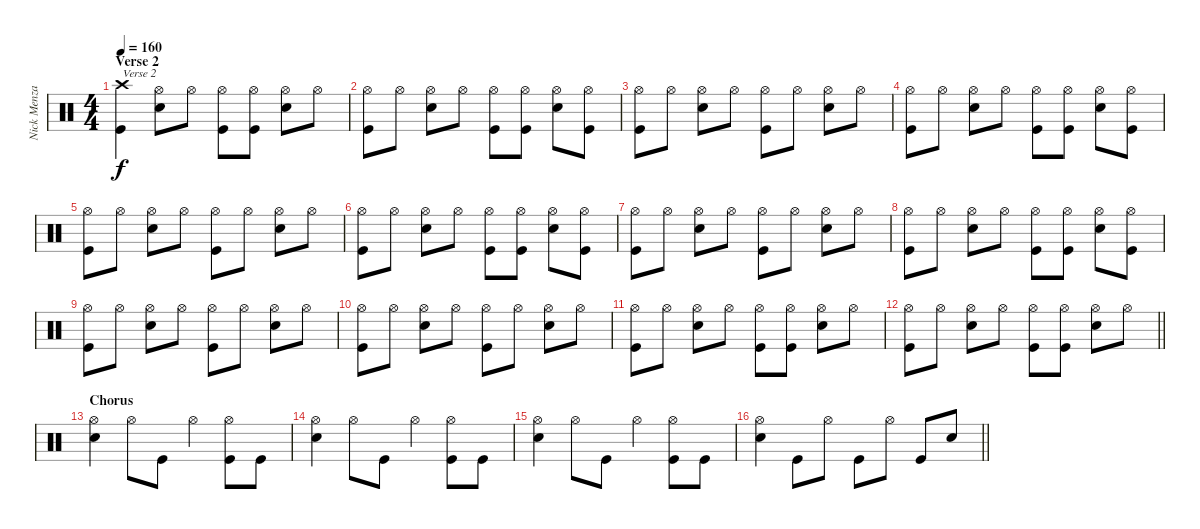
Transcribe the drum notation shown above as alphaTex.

\track ("Nick Menza" "Nick Menza") {instrument percussion}
\staff {score}
\articulation defaults
\ts (4 4)
\section ("" "Verse 2")
\tempo 160
\clef neutral
\ks c
("Crash high (hit)" "Kick (hit)").4{txt "Verse 2" dy f} ("Hi-Hat (open)" "Snare (hit) 2").8 "Hi-Hat (open)".8 ("Hi-Hat (open)" "Kick (hit)").8 ("Hi-Hat (open)" "Kick (hit)").8 ("Hi-Hat (open)" "Snare (hit) 2").8 "Hi-Hat (open)".8 |
("Hi-Hat (open)" "Kick (hit)").8 "Hi-Hat (open)".8 ("Hi-Hat (open)" "Snare (hit) 2").8 "Hi-Hat (open)".8 ("Hi-Hat (open)" "Kick (hit)").8 ("Hi-Hat (open)" "Kick (hit)").8 ("Hi-Hat (open)" "Snare (hit) 2").8 ("Hi-Hat (open)" "Kick (hit)").8 |
("Hi-Hat (open)" "Kick (hit)").8 "Hi-Hat (open)".8 ("Hi-Hat (open)" "Snare (hit) 2").8 "Hi-Hat (open)".8 ("Hi-Hat (open)" "Kick (hit)").8 "Hi-Hat (open)".8 ("Hi-Hat (open)" "Snare (hit) 2").8 "Hi-Hat (open)".8 |
("Hi-Hat (open)" "Kick (hit)").8 "Hi-Hat (open)".8 ("Hi-Hat (open)" "Snare (hit) 2").8 "Hi-Hat (open)".8 ("Hi-Hat (open)" "Kick (hit)").8 ("Hi-Hat (open)" "Kick (hit)").8 ("Hi-Hat (open)" "Snare (hit) 2").8 ("Hi-Hat (open)" "Kick (hit)").8 |
("Hi-Hat (open)" "Kick (hit)").8 "Hi-Hat (open)".8 ("Hi-Hat (open)" "Snare (hit) 2").8 "Hi-Hat (open)".8 ("Hi-Hat (open)" "Kick (hit)").8 "Hi-Hat (open)".8 ("Hi-Hat (open)" "Snare (hit) 2").8 "Hi-Hat (open)".8 |
("Hi-Hat (open)" "Kick (hit)").8 "Hi-Hat (open)".8 ("Hi-Hat (open)" "Snare (hit) 2").8 "Hi-Hat (open)".8 ("Hi-Hat (open)" "Kick (hit)").8 ("Hi-Hat (open)" "Kick (hit)").8 ("Hi-Hat (open)" "Snare (hit) 2").8 ("Hi-Hat (open)" "Kick (hit)").8 |
("Hi-Hat (open)" "Kick (hit)").8 "Hi-Hat (open)".8 ("Hi-Hat (open)" "Snare (hit) 2").8 "Hi-Hat (open)".8 ("Hi-Hat (open)" "Kick (hit)").8 "Hi-Hat (open)".8 ("Hi-Hat (open)" "Snare (hit) 2").8 "Hi-Hat (open)".8 |
("Hi-Hat (open)" "Kick (hit)").8 "Hi-Hat (open)".8 ("Hi-Hat (open)" "Snare (hit) 2").8 "Hi-Hat (open)".8 ("Hi-Hat (open)" "Kick (hit)").8 ("Hi-Hat (open)" "Kick (hit)").8 ("Hi-Hat (open)" "Snare (hit) 2").8 ("Hi-Hat (open)" "Kick (hit)").8 |
("Hi-Hat (open)" "Kick (hit)").8 "Hi-Hat (open)".8 ("Hi-Hat (open)" "Snare (hit) 2").8 "Hi-Hat (open)".8 ("Hi-Hat (open)" "Kick (hit)").8 "Hi-Hat (open)".8 ("Hi-Hat (open)" "Snare (hit) 2").8 "Hi-Hat (open)".8 |
("Hi-Hat (open)" "Kick (hit)").8 "Hi-Hat (open)".8 ("Hi-Hat (open)" "Snare (hit) 2").8 "Hi-Hat (open)".8 ("Hi-Hat (open)" "Kick (hit)").8 "Hi-Hat (open)".8 ("Hi-Hat (open)" "Snare (hit) 2").8 "Hi-Hat (open)".8 |
("Hi-Hat (open)" "Kick (hit)").8 "Hi-Hat (open)".8 ("Hi-Hat (open)" "Snare (hit) 2").8 "Hi-Hat (open)".8 ("Hi-Hat (open)" "Kick (hit)").8 ("Hi-Hat (open)" "Kick (hit)").8 ("Hi-Hat (open)" "Snare (hit) 2").8 "Hi-Hat (open)".8 |
\barLineRight lightlight
("Hi-Hat (open)" "Kick (hit)").8 "Hi-Hat (open)".8 ("Hi-Hat (open)" "Snare (hit) 2").8 "Hi-Hat (open)".8 ("Hi-Hat (open)" "Kick (hit)").8 ("Hi-Hat (open)" "Kick (hit)").8 ("Hi-Hat (open)" "Snare (hit) 2").8 "Hi-Hat (open)".8 |
\section ("" "Chorus")
("Hi-Hat (open)" "Snare (hit) 2").4 "Hi-Hat (open)".8 "Kick (hit)".8 "Hi-Hat (open)".4 ("Hi-Hat (open)" "Kick (hit)").8 "Kick (hit)".8 |
("Hi-Hat (open)" "Snare (hit) 2").4 "Hi-Hat (open)".8 "Kick (hit)".8 "Hi-Hat (open)".4 ("Hi-Hat (open)" "Kick (hit)").8 "Kick (hit)".8 |
("Hi-Hat (open)" "Snare (hit) 2").4 "Hi-Hat (open)".8 "Kick (hit)".8 "Hi-Hat (open)".4 ("Hi-Hat (open)" "Kick (hit)").8 "Kick (hit)".8 |
\barLineRight lightlight
("Hi-Hat (open)" "Snare (hit) 2").4 "Kick (hit)".8 "Hi-Hat (open)".8 "Kick (hit)".8 "Hi-Hat (open)".8 "Kick (hit)".8 "Snare (hit) 2".8
